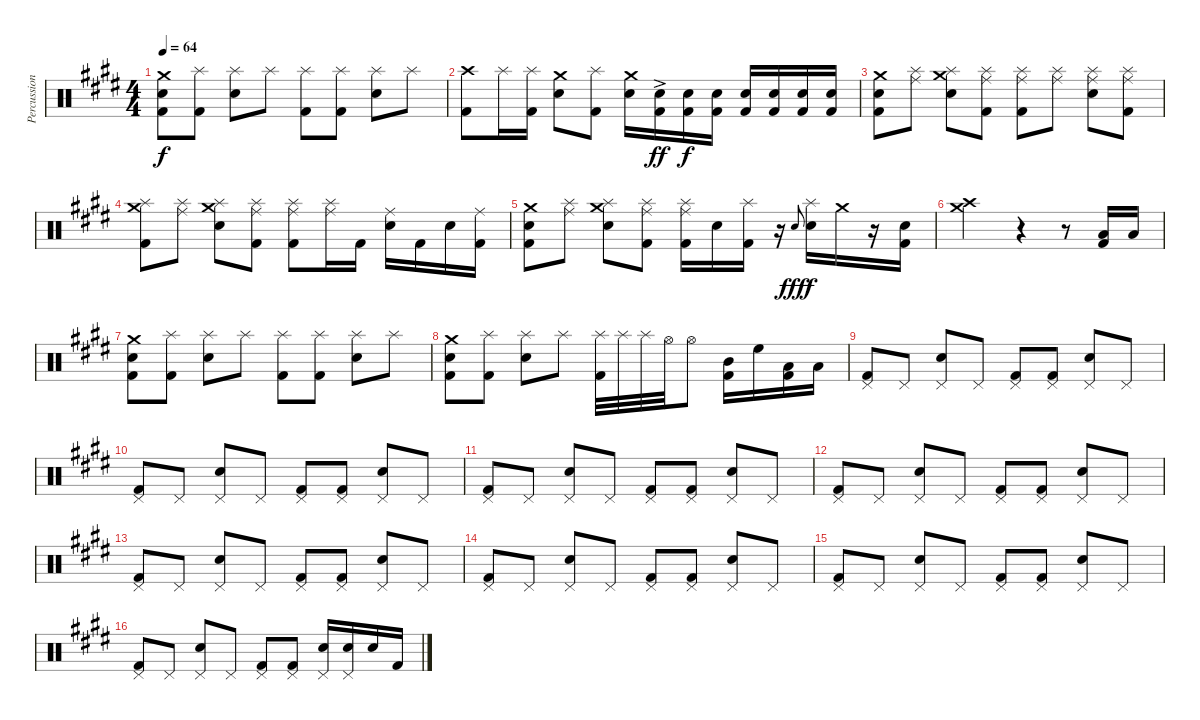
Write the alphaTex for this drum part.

\track ("Percussion" "Percussion") {instrument percussion}
\staff {score}
\articulation defaults
\ts (4 4)
\tempo 64
\clef neutral
\ks e
("Crash medium (hit)" "Snare (hit) 2" "Kick (hit) 2").8{dy f} ("Splash (hit)" "Kick (hit) 2").8 ("Splash (hit)" "Snare (hit) 2").8 "Splash (hit)".8 ("Splash (hit)" "Kick (hit) 2").8 ("Splash (hit)" "Kick (hit) 2").8 ("Splash (hit)" "Snare (hit) 2").8 "Splash (hit)".8 |
("Crash high (hit)" "Kick (hit) 2").8 "Splash (hit)".16 ("Splash (hit)" "Kick (hit) 2").16 ("Crash medium (hit)" "Snare (hit) 2").8 ("Splash (hit)" "Kick (hit) 2").8 ("Crash medium (hit)" "Snare (hit) 2").16 ("Electric Snare (hit)" "Kick (hit) 2"{ac}).16{dy ff} ("Electric Snare (hit)" "Kick (hit) 2").16{dy f} ("Electric Snare (hit)" "Kick (hit) 2").16 ("Electric Snare (hit)" "Kick (hit) 2").16 ("Electric Snare (hit)" "Kick (hit) 2").16 ("Electric Snare (hit)" "Kick (hit) 2").16 ("Electric Snare (hit)" "Kick (hit) 2").16 |
("Crash medium (hit)" "Kick (hit) 2" "Snare (hit) 2").8 ("Ride (middle)" "Splash (hit)").8 ("Crash medium (hit)" "Splash (hit)" "Snare (hit) 2").8 ("Ride (middle)" "Splash (hit)" "Kick (hit) 2").8 ("Ride (middle)" "Splash (hit)" "Kick (hit) 2").8 ("Ride (middle)" "Splash (hit)").8 ("Ride (middle)" "Splash (hit)" "Snare (hit) 2").8 ("Ride (middle)" "Splash (hit)" "Kick (hit) 2").8 |
("Crash medium (hit)" "Splash (hit)" "Kick (hit) 2").8 ("Ride (middle)" "Splash (hit)").8 ("Crash medium (hit)" "Splash (hit)" "Snare (hit) 2").8 ("Ride (middle)" "Splash (hit)" "Kick (hit) 2").8 ("Ride (middle)" "Splash (hit)" "Kick (hit) 2").8 ("Ride (middle)" "Splash (hit)").16 "Kick (hit) 2".16 ("Ride (middle)" "Snare (hit) 2").16 "Kick (hit) 2".16 "Snare (hit) 2".16 ("Ride (middle)" "Kick (hit) 2").16 |
("Crash medium (hit)" "Kick (hit) 2" "Snare (hit) 2").8 ("Ride (middle)" "Splash (hit)").8 ("Crash medium (hit)" "Splash (hit)" "Snare (hit) 2").8 ("Ride (middle)" "Splash (hit)" "Kick (hit) 2").8 ("Ride (middle)" "Splash (hit)" "Kick (hit) 2").16 "Snare (hit) 2".16 ("Splash (hit)" "Kick (hit) 2").16 r.16 "Snare (hit) 2".8{gr onbeat dy fff} ("Splash (hit)" "Snare (hit) 2").16{dy f} "Crash medium (hit)".16 r.16 ("Snare (hit) 2" "Kick (hit) 2").16 |
("Crash medium (hit)" "Crash high (hit)").2 r.4 r.8 ("Low Tom (hit)" "Kick (hit) 2").16 "Low Tom (hit)".16 |
("Crash medium (hit)" "Snare (hit) 2" "Kick (hit) 2").8 ("Splash (hit)" "Kick (hit) 2").8 ("Splash (hit)" "Snare (hit) 2").8 "Splash (hit)".8 ("Splash (hit)" "Kick (hit) 2").8 ("Splash (hit)" "Kick (hit) 2").8 ("Splash (hit)" "Snare (hit) 2").8 "Splash (hit)".8 |
("Crash medium (hit)" "Snare (hit) 2" "Kick (hit) 2").8 ("Splash (hit)" "Kick (hit) 2").8 ("Splash (hit)" "Snare (hit) 2").8 "Splash (hit)".8 ("Splash (hit)" "Kick (hit) 2").32 "Splash (hit)".32 "Splash (hit)".32 "Hi-Hat (open)".32 "Hi-Hat (open)".8 ("Mid Tom (hit)" "Kick (hit) 2").16 "High Floor Tom (hit)".16 ("Low Floor Tom (hit)" "Kick (hit) 2").16 "Low Floor Tom (hit)".16 |
("Pedal Hi-Hat (hit)" "Kick (hit) 2").8 "Pedal Hi-Hat (hit)".8 ("Pedal Hi-Hat (hit)" "Electric Snare (hit)").8 "Pedal Hi-Hat (hit)".8 ("Pedal Hi-Hat (hit)" "Kick (hit) 2").8 ("Pedal Hi-Hat (hit)" "Kick (hit) 2").8 ("Pedal Hi-Hat (hit)" "Electric Snare (hit)").8 "Pedal Hi-Hat (hit)".8 |
("Pedal Hi-Hat (hit)" "Kick (hit) 2").8 "Pedal Hi-Hat (hit)".8 ("Pedal Hi-Hat (hit)" "Electric Snare (hit)").8 "Pedal Hi-Hat (hit)".8 ("Pedal Hi-Hat (hit)" "Kick (hit) 2").8 ("Pedal Hi-Hat (hit)" "Kick (hit) 2").8 ("Pedal Hi-Hat (hit)" "Electric Snare (hit)").8 "Pedal Hi-Hat (hit)".8 |
("Pedal Hi-Hat (hit)" "Kick (hit) 2").8 "Pedal Hi-Hat (hit)".8 ("Pedal Hi-Hat (hit)" "Electric Snare (hit)").8 "Pedal Hi-Hat (hit)".8 ("Pedal Hi-Hat (hit)" "Kick (hit) 2").8 ("Pedal Hi-Hat (hit)" "Kick (hit) 2").8 ("Pedal Hi-Hat (hit)" "Electric Snare (hit)").8 "Pedal Hi-Hat (hit)".8 |
("Pedal Hi-Hat (hit)" "Kick (hit) 2").8 "Pedal Hi-Hat (hit)".8 ("Pedal Hi-Hat (hit)" "Electric Snare (hit)").8 "Pedal Hi-Hat (hit)".8 ("Pedal Hi-Hat (hit)" "Kick (hit) 2").8 ("Pedal Hi-Hat (hit)" "Kick (hit) 2").8 ("Pedal Hi-Hat (hit)" "Electric Snare (hit)").8 "Pedal Hi-Hat (hit)".8 |
("Pedal Hi-Hat (hit)" "Kick (hit) 2").8 "Pedal Hi-Hat (hit)".8 ("Pedal Hi-Hat (hit)" "Electric Snare (hit)").8 "Pedal Hi-Hat (hit)".8 ("Pedal Hi-Hat (hit)" "Kick (hit) 2").8 ("Pedal Hi-Hat (hit)" "Kick (hit) 2").8 ("Pedal Hi-Hat (hit)" "Electric Snare (hit)").8 "Pedal Hi-Hat (hit)".8 |
("Pedal Hi-Hat (hit)" "Kick (hit) 2").8 "Pedal Hi-Hat (hit)".8 ("Pedal Hi-Hat (hit)" "Electric Snare (hit)").8 "Pedal Hi-Hat (hit)".8 ("Pedal Hi-Hat (hit)" "Kick (hit) 2").8 ("Pedal Hi-Hat (hit)" "Kick (hit) 2").8 ("Pedal Hi-Hat (hit)" "Electric Snare (hit)").8 "Pedal Hi-Hat (hit)".8 |
("Pedal Hi-Hat (hit)" "Kick (hit) 2").8 "Pedal Hi-Hat (hit)".8 ("Pedal Hi-Hat (hit)" "Electric Snare (hit)").8 "Pedal Hi-Hat (hit)".8 ("Pedal Hi-Hat (hit)" "Kick (hit) 2").8 ("Pedal Hi-Hat (hit)" "Kick (hit) 2").8 ("Pedal Hi-Hat (hit)" "Electric Snare (hit)").8 "Pedal Hi-Hat (hit)".8 |
("Pedal Hi-Hat (hit)" "Kick (hit) 2").8 "Pedal Hi-Hat (hit)".8 ("Pedal Hi-Hat (hit)" "Electric Snare (hit)").8 "Pedal Hi-Hat (hit)".8 ("Pedal Hi-Hat (hit)" "Kick (hit) 2").8 ("Pedal Hi-Hat (hit)" "Kick (hit) 2").8 ("Pedal Hi-Hat (hit)" "Electric Snare (hit)").16 ("Pedal Hi-Hat (hit)" "Snare (hit) 2").16 "Snare (hit) 2".16 "Kick (hit) 2".16
